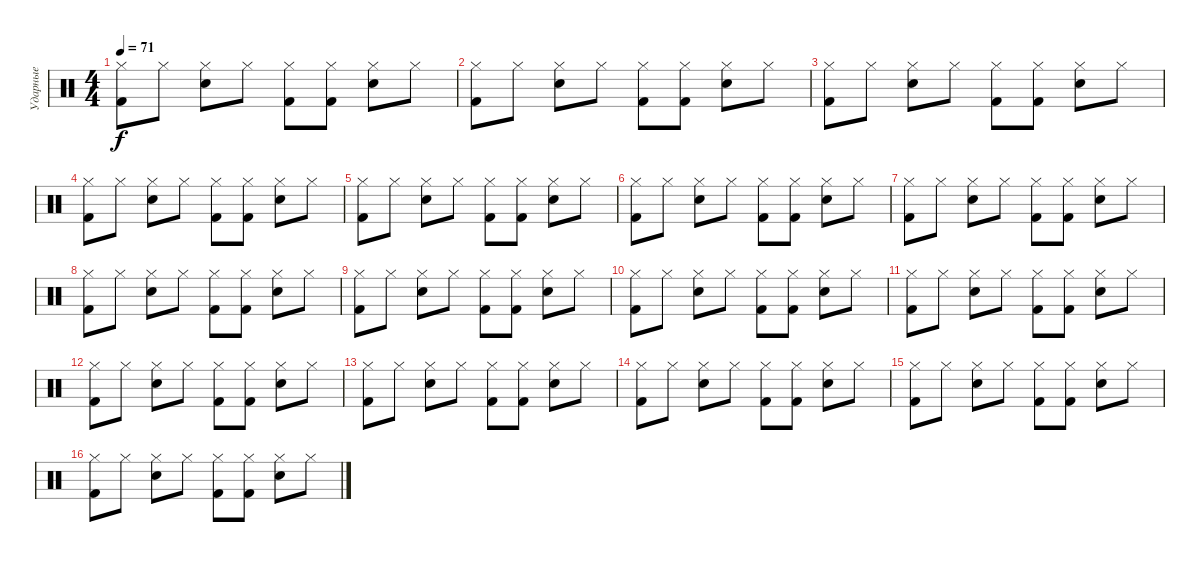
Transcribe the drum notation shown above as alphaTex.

\track ("Ударные" "Ударные") {instrument percussion}
\staff {score}
\articulation defaults
\ts (4 4)
\tempo 71
\clef neutral
\ks c
("Hi-Hat (closed)" "Kick (hit) 2").8{dy f} "Hi-Hat (closed)".8 ("Hi-Hat (closed)" "Snare (hit) 2").8 "Hi-Hat (closed)".8 ("Hi-Hat (closed)" "Kick (hit) 2").8 ("Hi-Hat (closed)" "Kick (hit) 2").8 ("Hi-Hat (closed)" "Snare (hit) 2").8 "Hi-Hat (closed)".8 |
("Hi-Hat (closed)" "Kick (hit) 2").8 "Hi-Hat (closed)".8 ("Hi-Hat (closed)" "Snare (hit) 2").8 "Hi-Hat (closed)".8 ("Hi-Hat (closed)" "Kick (hit) 2").8 ("Hi-Hat (closed)" "Kick (hit) 2").8 ("Hi-Hat (closed)" "Snare (hit) 2").8 "Hi-Hat (closed)".8 |
("Hi-Hat (closed)" "Kick (hit) 2").8 "Hi-Hat (closed)".8 ("Hi-Hat (closed)" "Snare (hit) 2").8 "Hi-Hat (closed)".8 ("Hi-Hat (closed)" "Kick (hit) 2").8 ("Hi-Hat (closed)" "Kick (hit) 2").8 ("Hi-Hat (closed)" "Snare (hit) 2").8 "Hi-Hat (closed)".8 |
("Hi-Hat (closed)" "Kick (hit) 2").8 "Hi-Hat (closed)".8 ("Hi-Hat (closed)" "Snare (hit) 2").8 "Hi-Hat (closed)".8 ("Hi-Hat (closed)" "Kick (hit) 2").8 ("Hi-Hat (closed)" "Kick (hit) 2").8 ("Hi-Hat (closed)" "Snare (hit) 2").8 "Hi-Hat (closed)".8 |
("Hi-Hat (closed)" "Kick (hit) 2").8 "Hi-Hat (closed)".8 ("Hi-Hat (closed)" "Snare (hit) 2").8 "Hi-Hat (closed)".8 ("Hi-Hat (closed)" "Kick (hit) 2").8 ("Hi-Hat (closed)" "Kick (hit) 2").8 ("Hi-Hat (closed)" "Snare (hit) 2").8 "Hi-Hat (closed)".8 |
("Hi-Hat (closed)" "Kick (hit) 2").8 "Hi-Hat (closed)".8 ("Hi-Hat (closed)" "Snare (hit) 2").8 "Hi-Hat (closed)".8 ("Hi-Hat (closed)" "Kick (hit) 2").8 ("Hi-Hat (closed)" "Kick (hit) 2").8 ("Hi-Hat (closed)" "Snare (hit) 2").8 "Hi-Hat (closed)".8 |
("Hi-Hat (closed)" "Kick (hit) 2").8 "Hi-Hat (closed)".8 ("Hi-Hat (closed)" "Snare (hit) 2").8 "Hi-Hat (closed)".8 ("Hi-Hat (closed)" "Kick (hit) 2").8 ("Hi-Hat (closed)" "Kick (hit) 2").8 ("Hi-Hat (closed)" "Snare (hit) 2").8 "Hi-Hat (closed)".8 |
("Hi-Hat (closed)" "Kick (hit) 2").8 "Hi-Hat (closed)".8 ("Hi-Hat (closed)" "Snare (hit) 2").8 "Hi-Hat (closed)".8 ("Hi-Hat (closed)" "Kick (hit) 2").8 ("Hi-Hat (closed)" "Kick (hit) 2").8 ("Hi-Hat (closed)" "Snare (hit) 2").8 "Hi-Hat (closed)".8 |
("Hi-Hat (closed)" "Kick (hit) 2").8 "Hi-Hat (closed)".8 ("Hi-Hat (closed)" "Snare (hit) 2").8 "Hi-Hat (closed)".8 ("Hi-Hat (closed)" "Kick (hit) 2").8 ("Hi-Hat (closed)" "Kick (hit) 2").8 ("Hi-Hat (closed)" "Snare (hit) 2").8 "Hi-Hat (closed)".8 |
("Hi-Hat (closed)" "Kick (hit) 2").8 "Hi-Hat (closed)".8 ("Hi-Hat (closed)" "Snare (hit) 2").8 "Hi-Hat (closed)".8 ("Hi-Hat (closed)" "Kick (hit) 2").8 ("Hi-Hat (closed)" "Kick (hit) 2").8 ("Hi-Hat (closed)" "Snare (hit) 2").8 "Hi-Hat (closed)".8 |
("Hi-Hat (closed)" "Kick (hit) 2").8 "Hi-Hat (closed)".8 ("Hi-Hat (closed)" "Snare (hit) 2").8 "Hi-Hat (closed)".8 ("Hi-Hat (closed)" "Kick (hit) 2").8 ("Hi-Hat (closed)" "Kick (hit) 2").8 ("Hi-Hat (closed)" "Snare (hit) 2").8 "Hi-Hat (closed)".8 |
("Hi-Hat (closed)" "Kick (hit) 2").8 "Hi-Hat (closed)".8 ("Hi-Hat (closed)" "Snare (hit) 2").8 "Hi-Hat (closed)".8 ("Hi-Hat (closed)" "Kick (hit) 2").8 ("Hi-Hat (closed)" "Kick (hit) 2").8 ("Hi-Hat (closed)" "Snare (hit) 2").8 "Hi-Hat (closed)".8 |
("Hi-Hat (closed)" "Kick (hit) 2").8 "Hi-Hat (closed)".8 ("Hi-Hat (closed)" "Snare (hit) 2").8 "Hi-Hat (closed)".8 ("Hi-Hat (closed)" "Kick (hit) 2").8 ("Hi-Hat (closed)" "Kick (hit) 2").8 ("Hi-Hat (closed)" "Snare (hit) 2").8 "Hi-Hat (closed)".8 |
("Hi-Hat (closed)" "Kick (hit) 2").8 "Hi-Hat (closed)".8 ("Hi-Hat (closed)" "Snare (hit) 2").8 "Hi-Hat (closed)".8 ("Hi-Hat (closed)" "Kick (hit) 2").8 ("Hi-Hat (closed)" "Kick (hit) 2").8 ("Hi-Hat (closed)" "Snare (hit) 2").8 "Hi-Hat (closed)".8 |
("Hi-Hat (closed)" "Kick (hit) 2").8 "Hi-Hat (closed)".8 ("Hi-Hat (closed)" "Snare (hit) 2").8 "Hi-Hat (closed)".8 ("Hi-Hat (closed)" "Kick (hit) 2").8 ("Hi-Hat (closed)" "Kick (hit) 2").8 ("Hi-Hat (closed)" "Snare (hit) 2").8 "Hi-Hat (closed)".8 |
("Hi-Hat (closed)" "Kick (hit) 2").8 "Hi-Hat (closed)".8 ("Hi-Hat (closed)" "Snare (hit) 2").8 "Hi-Hat (closed)".8 ("Hi-Hat (closed)" "Kick (hit) 2").8 ("Hi-Hat (closed)" "Kick (hit) 2").8 ("Hi-Hat (closed)" "Snare (hit) 2").8 "Hi-Hat (closed)".8
